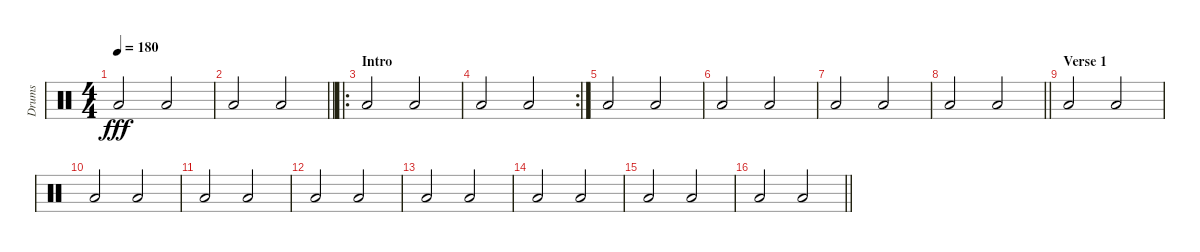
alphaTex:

\track ("Drums" "Drums") {instrument percussion}
\staff {score}
\articulation defaults
\ts (4 4)
\tempo 180
\clef neutral
\ks c "Low Floor Tom (hit)".2{dy fff} "Low Floor Tom (hit)".2
|
\barLineRight lightlight "Low Floor Tom (hit)".2 "Low Floor Tom (hit)".2
|
\ro
\section ("" "Intro")
"Low Floor Tom (hit)".2 "Low Floor Tom (hit)".2 |
\rc 2 "Low Floor Tom (hit)".2 "Low Floor Tom (hit)".2
|
"Low Floor Tom (hit)".2 "Low Floor Tom (hit)".2 |
"Low Floor Tom (hit)".2 "Low Floor Tom (hit)".2 |
"Low Floor Tom (hit)".2 "Low Floor Tom (hit)".2 |
\barLineRight lightlight "Low Floor Tom (hit)".2 "Low Floor Tom (hit)".2
|
\section ("" "Verse 1")
"Low Floor Tom (hit)".2 "Low Floor Tom (hit)".2 |
"Low Floor Tom (hit)".2 "Low Floor Tom (hit)".2 |
"Low Floor Tom (hit)".2 "Low Floor Tom (hit)".2 |
"Low Floor Tom (hit)".2 "Low Floor Tom (hit)".2 |
"Low Floor Tom (hit)".2 "Low Floor Tom (hit)".2 |
"Low Floor Tom (hit)".2 "Low Floor Tom (hit)".2 |
"Low Floor Tom (hit)".2 "Low Floor Tom (hit)".2 |
\barLineRight lightlight "Low Floor Tom (hit)".2 "Low Floor Tom (hit)".2
